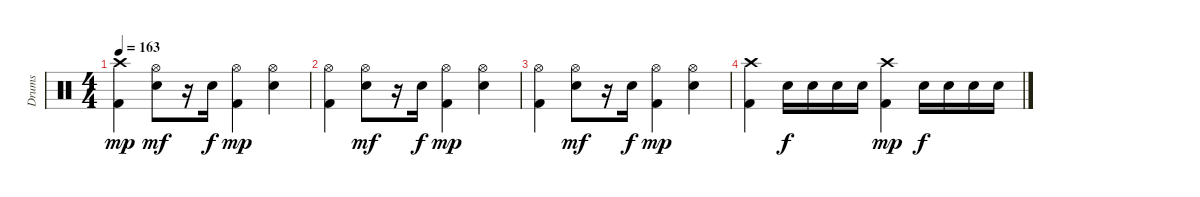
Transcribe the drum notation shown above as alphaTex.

\track ("Drums" "Drums") {instrument percussion}
\staff {score}
\articulation defaults
\ts (4 4)
\tempo 163
\clef neutral
\ks c
("Crash high (hit)" "Kick (hit) 2").4{dy mp} ("Hi-Hat (open)" "Snare (hit) 2").8{dy mf} r.16 "Snare (hit) 2".16{dy f} ("Hi-Hat (open)" "Kick (hit) 2").4{dy mp} ("Hi-Hat (open)" "Snare (hit) 2").4 |
("Hi-Hat (open)" "Kick (hit) 2").4 ("Hi-Hat (open)" "Snare (hit) 2").8{dy mf} r.16 "Snare (hit) 2".16{dy f} ("Hi-Hat (open)" "Kick (hit) 2").4{dy mp} ("Hi-Hat (open)" "Snare (hit) 2").4 |
("Hi-Hat (open)" "Kick (hit) 2").4 ("Hi-Hat (open)" "Snare (hit) 2").8{dy mf} r.16 "Snare (hit) 2".16{dy f} ("Hi-Hat (open)" "Kick (hit) 2").4{dy mp} ("Hi-Hat (open)" "Snare (hit) 2").4 |
("Crash high (hit)" "Kick (hit) 2").4 "Snare (hit) 2".16{dy f} "Snare (hit) 2".16 "Snare (hit) 2".16 "Snare (hit) 2".16 ("Crash high (hit)" "Kick (hit) 2").4{dy mp} "Snare (hit) 2".16{dy f} "Snare (hit) 2".16 "Snare (hit) 2".16 "Snare (hit) 2".16
